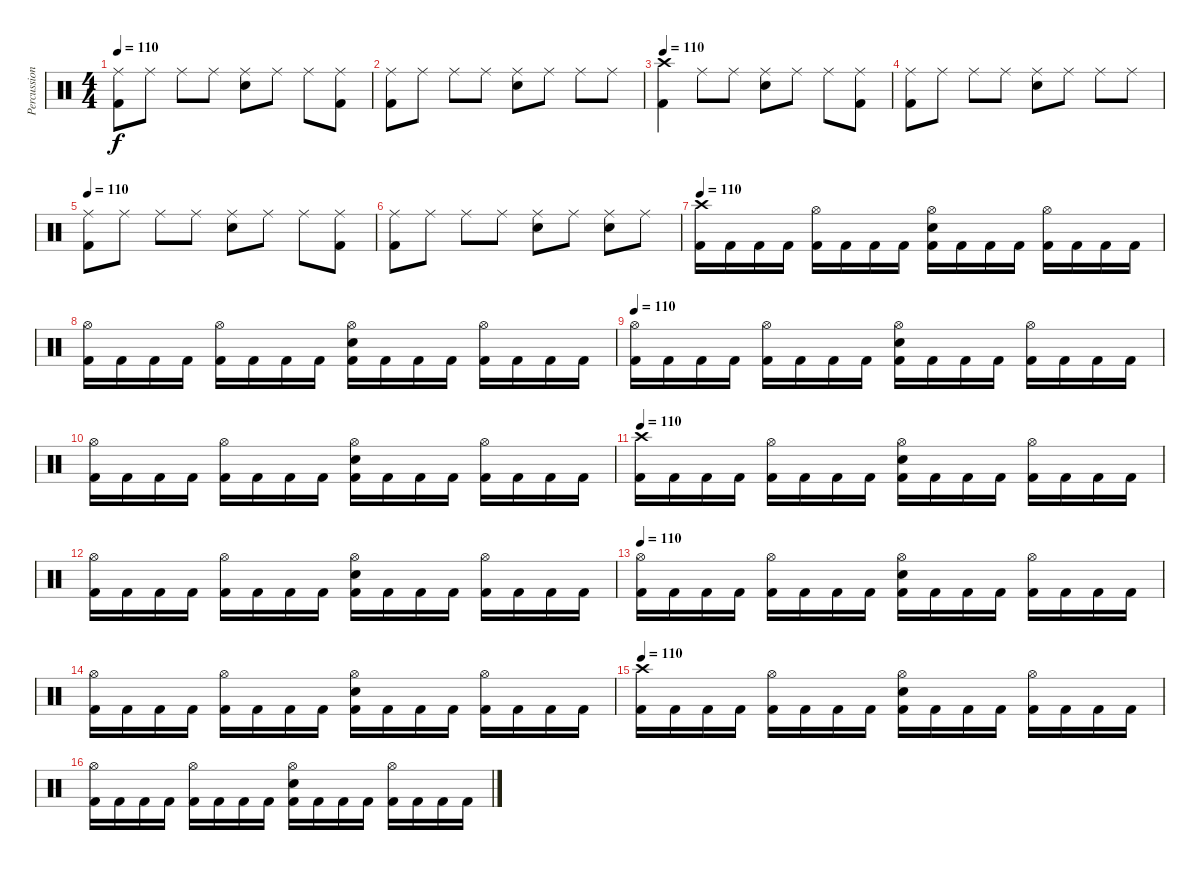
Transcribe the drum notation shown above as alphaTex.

\track ("Percussions" "Percussion") {instrument percussion}
\staff {score}
\articulation defaults
\ts (4 4)
\tempo 110
\clef neutral
\ks c
("Kick (hit) 2" "Ride (middle)").8{dy f} "Ride (middle)".8 "Ride (middle)".8 "Ride (middle)".8 ("Electric Snare (hit)" "Ride (middle)").8 "Ride (middle)".8 "Ride (middle)".8 ("Kick (hit) 2" "Ride (middle)").8 |
("Kick (hit) 2" "Ride (middle)").8 "Ride (middle)".8 "Ride (middle)".8 "Ride (middle)".8 ("Electric Snare (hit)" "Ride (middle)").8 "Ride (middle)".8 "Ride (middle)".8 "Ride (middle)".8 |
\tempo 110
("Kick (hit) 2" "Crash high (hit)").4 "Ride (middle)".8 "Ride (middle)".8 ("Electric Snare (hit)" "Ride (middle)").8 "Ride (middle)".8 "Ride (middle)".8 ("Kick (hit) 2" "Ride (middle)").8 |
("Kick (hit) 2" "Ride (middle)").8 "Ride (middle)".8 "Ride (middle)".8 "Ride (middle)".8 ("Electric Snare (hit)" "Ride (middle)").8 "Ride (middle)".8 "Ride (middle)".8 "Ride (middle)".8 |
\tempo 110
("Kick (hit) 2" "Ride (middle)").8 "Ride (middle)".8 "Ride (middle)".8 "Ride (middle)".8 ("Electric Snare (hit)" "Ride (middle)").8 "Ride (middle)".8 "Ride (middle)".8 ("Kick (hit) 2" "Ride (middle)").8 |
("Kick (hit) 2" "Ride (middle)").8 "Ride (middle)".8 "Ride (middle)".8 "Ride (middle)".8 ("Electric Snare (hit)" "Ride (middle)").8 "Ride (middle)".8 ("Electric Snare (hit)" "Ride (middle)").8 "Ride (middle)".8 |
\tempo 110
("Kick (hit) 2" "Crash high (hit)").16 "Kick (hit) 2".16 "Kick (hit) 2".16 "Kick (hit) 2".16 ("Kick (hit) 2" "Hi-Hat (open)").16 "Kick (hit) 2".16 "Kick (hit) 2".16 "Kick (hit) 2".16 ("Kick (hit) 2" "Electric Snare (hit)" "Hi-Hat (open)").16 "Kick (hit) 2".16 "Kick (hit) 2".16 "Kick (hit) 2".16 ("Kick (hit) 2" "Hi-Hat (open)").16 "Kick (hit) 2".16 "Kick (hit) 2".16 "Kick (hit) 2".16 |
("Kick (hit) 2" "Hi-Hat (open)").16 "Kick (hit) 2".16 "Kick (hit) 2".16 "Kick (hit) 2".16 ("Kick (hit) 2" "Hi-Hat (open)").16 "Kick (hit) 2".16 "Kick (hit) 2".16 "Kick (hit) 2".16 ("Kick (hit) 2" "Electric Snare (hit)" "Hi-Hat (open)").16 "Kick (hit) 2".16 "Kick (hit) 2".16 "Kick (hit) 2".16 ("Kick (hit) 2" "Hi-Hat (open)").16 "Kick (hit) 2".16 "Kick (hit) 2".16 "Kick (hit) 2".16 |
\tempo 110
("Kick (hit) 2" "Hi-Hat (open)").16 "Kick (hit) 2".16 "Kick (hit) 2".16 "Kick (hit) 2".16 ("Kick (hit) 2" "Hi-Hat (open)").16 "Kick (hit) 2".16 "Kick (hit) 2".16 "Kick (hit) 2".16 ("Kick (hit) 2" "Electric Snare (hit)" "Hi-Hat (open)").16 "Kick (hit) 2".16 "Kick (hit) 2".16 "Kick (hit) 2".16 ("Kick (hit) 2" "Hi-Hat (open)").16 "Kick (hit) 2".16 "Kick (hit) 2".16 "Kick (hit) 2".16 |
("Kick (hit) 2" "Hi-Hat (open)").16 "Kick (hit) 2".16 "Kick (hit) 2".16 "Kick (hit) 2".16 ("Kick (hit) 2" "Hi-Hat (open)").16 "Kick (hit) 2".16 "Kick (hit) 2".16 "Kick (hit) 2".16 ("Kick (hit) 2" "Electric Snare (hit)" "Hi-Hat (open)").16 "Kick (hit) 2".16 "Kick (hit) 2".16 "Kick (hit) 2".16 ("Kick (hit) 2" "Hi-Hat (open)").16 "Kick (hit) 2".16 "Kick (hit) 2".16 "Kick (hit) 2".16 |
\tempo 110
("Kick (hit) 2" "Crash high (hit)").16 "Kick (hit) 2".16 "Kick (hit) 2".16 "Kick (hit) 2".16 ("Kick (hit) 2" "Hi-Hat (open)").16 "Kick (hit) 2".16 "Kick (hit) 2".16 "Kick (hit) 2".16 ("Kick (hit) 2" "Electric Snare (hit)" "Hi-Hat (open)").16 "Kick (hit) 2".16 "Kick (hit) 2".16 "Kick (hit) 2".16 ("Kick (hit) 2" "Hi-Hat (open)").16 "Kick (hit) 2".16 "Kick (hit) 2".16 "Kick (hit) 2".16 |
("Kick (hit) 2" "Hi-Hat (open)").16 "Kick (hit) 2".16 "Kick (hit) 2".16 "Kick (hit) 2".16 ("Kick (hit) 2" "Hi-Hat (open)").16 "Kick (hit) 2".16 "Kick (hit) 2".16 "Kick (hit) 2".16 ("Kick (hit) 2" "Electric Snare (hit)" "Hi-Hat (open)").16 "Kick (hit) 2".16 "Kick (hit) 2".16 "Kick (hit) 2".16 ("Kick (hit) 2" "Hi-Hat (open)").16 "Kick (hit) 2".16 "Kick (hit) 2".16 "Kick (hit) 2".16 |
\tempo 110
("Kick (hit) 2" "Hi-Hat (open)").16 "Kick (hit) 2".16 "Kick (hit) 2".16 "Kick (hit) 2".16 ("Kick (hit) 2" "Hi-Hat (open)").16 "Kick (hit) 2".16 "Kick (hit) 2".16 "Kick (hit) 2".16 ("Kick (hit) 2" "Electric Snare (hit)" "Hi-Hat (open)").16 "Kick (hit) 2".16 "Kick (hit) 2".16 "Kick (hit) 2".16 ("Kick (hit) 2" "Hi-Hat (open)").16 "Kick (hit) 2".16 "Kick (hit) 2".16 "Kick (hit) 2".16 |
("Kick (hit) 2" "Hi-Hat (open)").16 "Kick (hit) 2".16 "Kick (hit) 2".16 "Kick (hit) 2".16 ("Kick (hit) 2" "Hi-Hat (open)").16 "Kick (hit) 2".16 "Kick (hit) 2".16 "Kick (hit) 2".16 ("Kick (hit) 2" "Electric Snare (hit)" "Hi-Hat (open)").16 "Kick (hit) 2".16 "Kick (hit) 2".16 "Kick (hit) 2".16 ("Kick (hit) 2" "Hi-Hat (open)").16 "Kick (hit) 2".16 "Kick (hit) 2".16 "Kick (hit) 2".16 |
\tempo 110
("Kick (hit) 2" "Crash high (hit)").16 "Kick (hit) 2".16 "Kick (hit) 2".16 "Kick (hit) 2".16 ("Kick (hit) 2" "Hi-Hat (open)").16 "Kick (hit) 2".16 "Kick (hit) 2".16 "Kick (hit) 2".16 ("Kick (hit) 2" "Electric Snare (hit)" "Hi-Hat (open)").16 "Kick (hit) 2".16 "Kick (hit) 2".16 "Kick (hit) 2".16 ("Kick (hit) 2" "Hi-Hat (open)").16 "Kick (hit) 2".16 "Kick (hit) 2".16 "Kick (hit) 2".16 |
("Kick (hit) 2" "Hi-Hat (open)").16 "Kick (hit) 2".16 "Kick (hit) 2".16 "Kick (hit) 2".16 ("Kick (hit) 2" "Hi-Hat (open)").16 "Kick (hit) 2".16 "Kick (hit) 2".16 "Kick (hit) 2".16 ("Kick (hit) 2" "Electric Snare (hit)" "Hi-Hat (open)").16 "Kick (hit) 2".16 "Kick (hit) 2".16 "Kick (hit) 2".16 ("Kick (hit) 2" "Hi-Hat (open)").16 "Kick (hit) 2".16 "Kick (hit) 2".16 "Kick (hit) 2".16
